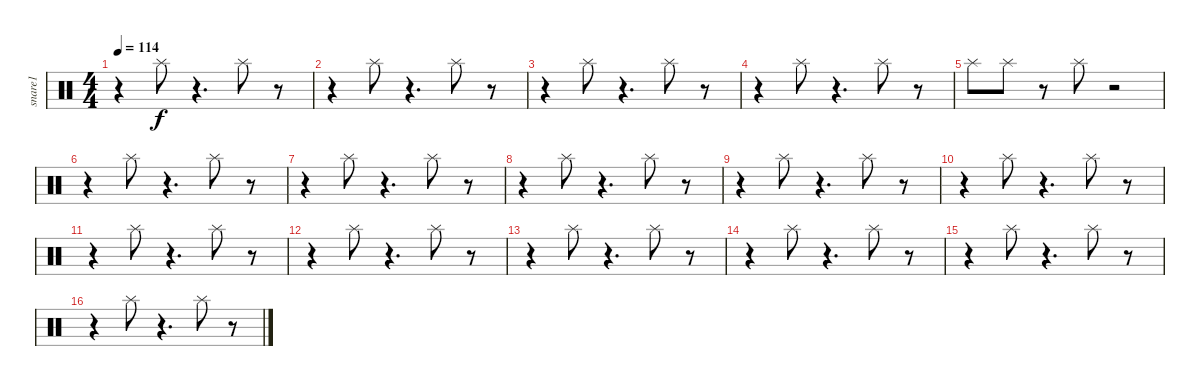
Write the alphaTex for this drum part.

\track ("snare1              " "snare1    ") {instrument percussion}
\staff {score}
\articulation defaults
\ts (4 4)
\tempo 114
\clef neutral
\ks c
r.4{dy f} "Splash (hit)".8 r.4{d} "Splash (hit)".8 r.8 |
r.4 "Splash (hit)".8 r.4{d} "Splash (hit)".8 r.8 |
r.4 "Splash (hit)".8 r.4{d} "Splash (hit)".8 r.8 |
r.4 "Splash (hit)".8 r.4{d} "Splash (hit)".8 r.8 |
"Splash (hit)".8 "Splash (hit)".8 r.8 "Splash (hit)".8 r.2 |
r.4 "Splash (hit)".8 r.4{d} "Splash (hit)".8 r.8 |
r.4 "Splash (hit)".8 r.4{d} "Splash (hit)".8 r.8 |
r.4 "Splash (hit)".8 r.4{d} "Splash (hit)".8 r.8 |
r.4 "Splash (hit)".8 r.4{d} "Splash (hit)".8 r.8 |
r.4 "Splash (hit)".8 r.4{d} "Splash (hit)".8 r.8 |
r.4 "Splash (hit)".8 r.4{d} "Splash (hit)".8 r.8 |
r.4 "Splash (hit)".8 r.4{d} "Splash (hit)".8 r.8 |
r.4 "Splash (hit)".8 r.4{d} "Splash (hit)".8 r.8 |
r.4 "Splash (hit)".8 r.4{d} "Splash (hit)".8 r.8 |
r.4 "Splash (hit)".8 r.4{d} "Splash (hit)".8 r.8 |
r.4 "Splash (hit)".8 r.4{d} "Splash (hit)".8 r.8
